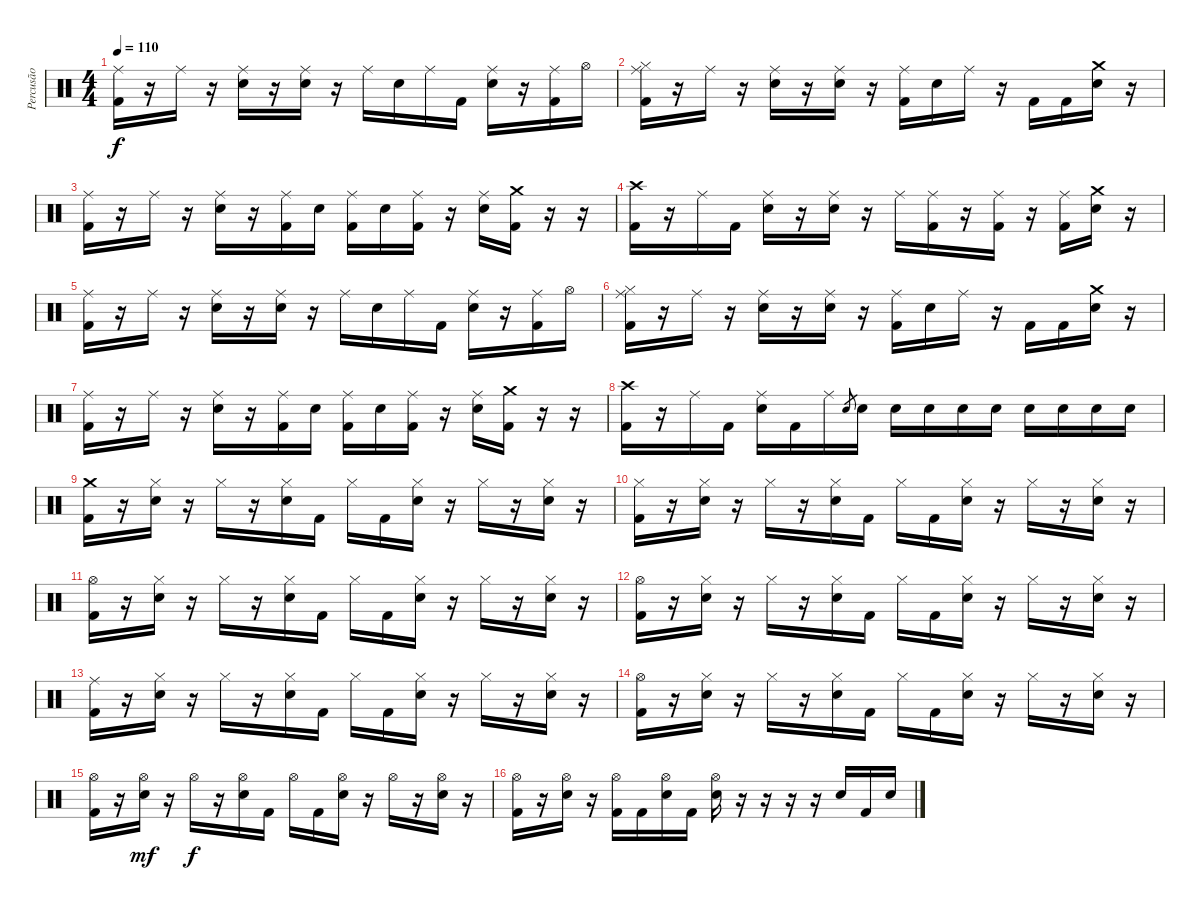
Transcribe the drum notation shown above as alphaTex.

\track ("Percusão" "Percusão") {instrument percussion}
\staff {score}
\articulation defaults
\ts (4 4)
\tempo 110
\clef neutral
\ks c
("Ride (middle)" "Kick (hit) 2").16{dy f} r.16 "Ride (middle)".16 r.16 ("Ride (middle)" "Snare (hit) 2").16 r.16 ("Ride (middle)" "Snare (hit) 2").16 r.16 "Ride (middle)".16 "Snare (hit) 2".16 "Ride (middle)".16 "Kick (hit) 2".16 ("Ride (middle)" "Snare (hit) 2").16 r.16 ("Ride (middle)" "Kick (hit) 2").16 "Hi-Hat (open)".16 |
("Ride (middle)" "Hi-Hat (closed)" "Kick (hit) 2").16 r.16 "Ride (middle)".16 r.16 ("Ride (middle)" "Snare (hit) 2").16 r.16 ("Ride (middle)" "Snare (hit) 2").16 r.16 ("Ride (middle)" "Kick (hit) 2").16 "Snare (hit) 2".16 "Ride (middle)".16 r.16 "Kick (hit) 2".16 "Kick (hit) 2".16 ("Crash medium (hit)" "Snare (hit) 2").16 r.16 |
("Ride (middle)" "Kick (hit) 2").16 r.16 "Ride (middle)".16 r.16 ("Ride (middle)" "Snare (hit) 2").16 r.16 ("Ride (middle)" "Kick (hit) 2").16 "Snare (hit) 2".16 ("Ride (middle)" "Kick (hit) 2").16 "Snare (hit) 2".16 ("Ride (middle)" "Kick (hit) 2").16 r.16 ("Ride (middle)" "Snare (hit) 2").16 ("Crash medium (hit)" "Kick (hit) 2").16 r.16 r.16 |
("Crash high (hit)" "Kick (hit) 2").16 r.16 "Ride (middle)".16 "Kick (hit) 2".16 ("Ride (middle)" "Snare (hit) 2").16 r.16 ("Ride (middle)" "Snare (hit) 2").16 r.16 "Ride (middle)".16 ("Ride (middle)" "Kick (hit) 2").16 r.16 ("Ride (middle)" "Kick (hit) 2").16 r.16 ("Ride (middle)" "Kick (hit) 2").16 ("Crash medium (hit)" "Snare (hit) 2").16 r.16 |
("Ride (middle)" "Kick (hit) 2").16 r.16 "Ride (middle)".16 r.16 ("Ride (middle)" "Snare (hit) 2").16 r.16 ("Ride (middle)" "Snare (hit) 2").16 r.16 "Ride (middle)".16 "Snare (hit) 2".16 "Ride (middle)".16 "Kick (hit) 2".16 ("Ride (middle)" "Snare (hit) 2").16 r.16 ("Ride (middle)" "Kick (hit) 2").16 "Hi-Hat (open)".16 |
("Ride (middle)" "Hi-Hat (closed)" "Kick (hit) 2").16 r.16 "Ride (middle)".16 r.16 ("Ride (middle)" "Snare (hit) 2").16 r.16 ("Ride (middle)" "Snare (hit) 2").16 r.16 ("Ride (middle)" "Kick (hit) 2").16 "Snare (hit) 2".16 "Ride (middle)".16 r.16 "Kick (hit) 2".16 "Kick (hit) 2".16 ("Crash medium (hit)" "Snare (hit) 2").16 r.16 |
("Ride (middle)" "Kick (hit) 2").16 r.16 "Ride (middle)".16 r.16 ("Ride (middle)" "Snare (hit) 2").16 r.16 ("Ride (middle)" "Kick (hit) 2").16 "Snare (hit) 2".16 ("Ride (middle)" "Kick (hit) 2").16 "Snare (hit) 2".16 ("Ride (middle)" "Kick (hit) 2").16 r.16 ("Ride (middle)" "Snare (hit) 2").16 ("Crash medium (hit)" "Kick (hit) 2").16 r.16 r.16 |
("Crash high (hit)" "Kick (hit) 2").16 r.16 "Ride (middle)".16 "Kick (hit) 2".16 ("Ride (middle)" "Snare (hit) 2").16 "Kick (hit) 2".16 "Ride (middle)".16 "Snare (hit) 2".8{gr} "Snare (hit) 2".16 "Snare (hit) 2".16 "Snare (hit) 2".16 "Snare (hit) 2".16 "Snare (hit) 2".16 "Snare (hit) 2".16 "Snare (hit) 2".16 "Snare (hit) 2".16 "Snare (hit) 2".16 |
("Crash medium (hit)" "Kick (hit) 2").16 r.16 ("Hi-Hat (closed)" "Snare (hit) 2").16 r.16 "Hi-Hat (closed)".16 r.16 ("Hi-Hat (closed)" "Snare (hit) 2").16 "Kick (hit) 2".16 "Hi-Hat (closed)".16 "Kick (hit) 2".16 ("Hi-Hat (closed)" "Snare (hit) 2").16 r.16 "Hi-Hat (closed)".16 r.16 ("Hi-Hat (closed)" "Snare (hit) 2").16 r.16 |
("Hi-Hat (closed)" "Kick (hit) 2").16 r.16 ("Hi-Hat (closed)" "Snare (hit) 2").16 r.16 "Hi-Hat (closed)".16 r.16 ("Hi-Hat (closed)" "Snare (hit) 2").16 "Kick (hit) 2".16 "Hi-Hat (closed)".16 "Kick (hit) 2".16 ("Hi-Hat (closed)" "Snare (hit) 2").16 r.16 "Hi-Hat (closed)".16 r.16 ("Hi-Hat (closed)" "Snare (hit) 2").16 r.16 |
("Hi-Hat (open)" "Kick (hit) 2").16 r.16 ("Hi-Hat (closed)" "Snare (hit) 2").16 r.16 "Hi-Hat (closed)".16 r.16 ("Hi-Hat (closed)" "Snare (hit) 2").16 "Kick (hit) 2".16 "Hi-Hat (closed)".16 "Kick (hit) 2".16 ("Hi-Hat (closed)" "Snare (hit) 2").16 r.16 "Hi-Hat (closed)".16 r.16 ("Hi-Hat (closed)" "Snare (hit) 2").16 r.16 |
("Hi-Hat (open)" "Kick (hit) 2").16 r.16 ("Hi-Hat (closed)" "Snare (hit) 2").16 r.16 "Hi-Hat (closed)".16 r.16 ("Hi-Hat (closed)" "Snare (hit) 2").16 "Kick (hit) 2".16 "Hi-Hat (closed)".16 "Kick (hit) 2".16 ("Hi-Hat (closed)" "Snare (hit) 2").16 r.16 "Hi-Hat (closed)".16 r.16 ("Hi-Hat (closed)" "Snare (hit) 2").16 r.16 |
("Ride (middle)" "Kick (hit) 2").16 r.16 ("Hi-Hat (closed)" "Snare (hit) 2").16 r.16 "Hi-Hat (closed)".16 r.16 ("Hi-Hat (closed)" "Snare (hit) 2").16 "Kick (hit) 2".16 "Hi-Hat (closed)".16 "Kick (hit) 2".16 ("Hi-Hat (closed)" "Snare (hit) 2").16 r.16 "Hi-Hat (closed)".16 r.16 ("Hi-Hat (closed)" "Snare (hit) 2").16 r.16 |
("Hi-Hat (open)" "Kick (hit) 2").16 r.16 ("Hi-Hat (closed)" "Snare (hit) 2").16 r.16 "Hi-Hat (closed)".16 r.16 ("Hi-Hat (closed)" "Snare (hit) 2").16 "Kick (hit) 2".16 "Hi-Hat (closed)".16 "Kick (hit) 2".16 ("Hi-Hat (closed)" "Snare (hit) 2").16 r.16 "Hi-Hat (closed)".16 r.16 ("Hi-Hat (closed)" "Snare (hit) 2").16 r.16 |
("Hi-Hat (open)" "Kick (hit) 2").16 r.16 ("Hi-Hat (open)" "Snare (hit) 2").16{dy mf} r.16 "Hi-Hat (open)".16{dy f} r.16 ("Hi-Hat (open)" "Snare (hit) 2").16 "Kick (hit) 2".16 "Hi-Hat (open)".16 "Kick (hit) 2".16 ("Hi-Hat (open)" "Snare (hit) 2").16 r.16 "Hi-Hat (open)".16 r.16 ("Hi-Hat (open)" "Snare (hit) 2").16 r.16 |
("Hi-Hat (open)" "Kick (hit) 2").16 r.16 ("Hi-Hat (open)" "Snare (hit) 2").16 r.16 ("Hi-Hat (open)" "Kick (hit) 2").16 "Kick (hit) 2".16 ("Hi-Hat (open)" "Snare (hit) 2").16 "Kick (hit) 2".16 ("Hi-Hat (open)" "Snare (hit) 2").16 r.16 r.16 r.16 r.16 "Snare (hit) 2".16 "Kick (hit) 2".16 "Snare (hit) 2".16
